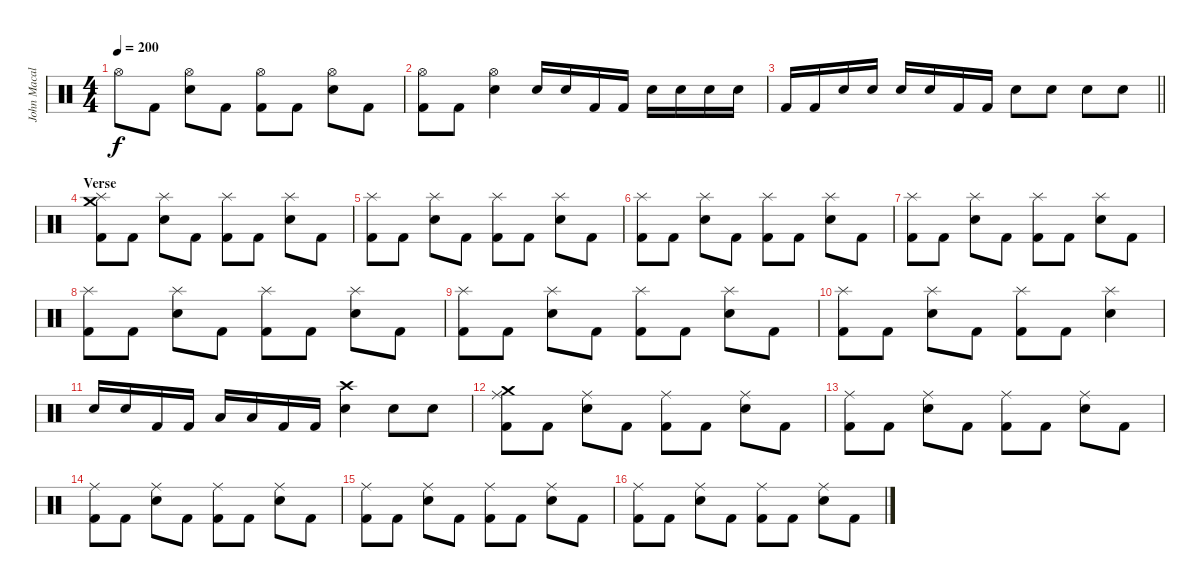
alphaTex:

\track ("John Macaluso" "John Macal") {instrument percussion}
\staff {score}
\articulation defaults
\ts (4 4)
\tempo 200
\clef neutral
\ks c "Hi-Hat (open)".8{dy f} "Kick (hit) 2".8
("Hi-Hat (open)" "Snare (hit) 2").8 "Kick (hit) 2".8 ("Hi-Hat (open)" "Kick (hit) 2").8 "Kick (hit) 2".8 ("Hi-Hat (open)" "Snare (hit) 2").8 "Kick (hit) 2".8 |
("Hi-Hat (open)" "Kick (hit) 2").8 "Kick (hit) 2".8 ("Hi-Hat (open)" "Snare (hit) 2").4 "Snare (hit) 2".16 "Snare (hit) 2".16 "Kick (hit) 2".16 "Kick (hit) 2".16 "Snare (hit) 2".16 "Snare (hit) 2".16 "Snare (hit) 2".16 "Snare (hit) 2".16 |
\barLineRight lightlight "Kick (hit) 2".16 "Kick (hit) 2".16 "Snare (hit) 2".16 "Snare (hit) 2".16 "Snare (hit) 2".16 "Snare (hit) 2".16 "Kick (hit) 2".16 "Kick (hit) 2".16 "Snare (hit) 2".8 "Snare (hit) 2".8 "Snare (hit) 2".8 "Snare (hit) 2".8
|
\section ("" "Verse")
("Crash medium (hit)" "Splash (hit)" "Kick (hit) 2").8 "Kick (hit) 2".8 ("Splash (hit)" "Snare (hit) 2").8 "Kick (hit) 2".8 ("Splash (hit)" "Kick (hit) 2").8 "Kick (hit) 2".8 ("Splash (hit)" "Snare (hit) 2").8 "Kick (hit) 2".8 |
("Splash (hit)" "Kick (hit) 2").8 "Kick (hit) 2".8 ("Splash (hit)" "Snare (hit) 2").8 "Kick (hit) 2".8 ("Splash (hit)" "Kick (hit) 2").8 "Kick (hit) 2".8 ("Splash (hit)" "Snare (hit) 2").8 "Kick (hit) 2".8 |
("Splash (hit)" "Kick (hit) 2").8 "Kick (hit) 2".8 ("Splash (hit)" "Snare (hit) 2").8 "Kick (hit) 2".8 ("Splash (hit)" "Kick (hit) 2").8 "Kick (hit) 2".8 ("Splash (hit)" "Snare (hit) 2").8 "Kick (hit) 2".8 |
("Splash (hit)" "Kick (hit) 2").8 "Kick (hit) 2".8 ("Splash (hit)" "Snare (hit) 2").8 "Kick (hit) 2".8 ("Splash (hit)" "Kick (hit) 2").8 "Kick (hit) 2".8 ("Splash (hit)" "Snare (hit) 2").8 "Kick (hit) 2".8 |
("Splash (hit)" "Kick (hit) 2").8 "Kick (hit) 2".8 ("Splash (hit)" "Snare (hit) 2").8 "Kick (hit) 2".8 ("Splash (hit)" "Kick (hit) 2").8 "Kick (hit) 2".8 ("Splash (hit)" "Snare (hit) 2").8 "Kick (hit) 2".8 |
("Splash (hit)" "Kick (hit) 2").8 "Kick (hit) 2".8 ("Splash (hit)" "Snare (hit) 2").8 "Kick (hit) 2".8 ("Splash (hit)" "Kick (hit) 2").8 "Kick (hit) 2".8 ("Splash (hit)" "Snare (hit) 2").8 "Kick (hit) 2".8 |
("Splash (hit)" "Kick (hit) 2").8 "Kick (hit) 2".8 ("Splash (hit)" "Snare (hit) 2").8 "Kick (hit) 2".8 ("Splash (hit)" "Kick (hit) 2").8 "Kick (hit) 2".8 ("Splash (hit)" "Snare (hit) 2").4 |
"Snare (hit) 2".16 "Snare (hit) 2".16 "Kick (hit) 2".16 "Kick (hit) 2".16 "Low Tom (hit)".16 "Low Tom (hit)".16 "Kick (hit) 2".16 "Kick (hit) 2".16 ("Crash high (hit)" "Snare (hit) 2").4 "Snare (hit) 2".8 "Snare (hit) 2".8 |
("Crash medium (hit)" "Ride (middle)" "Kick (hit) 2").8 "Kick (hit) 2".8 ("Ride (middle)" "Snare (hit) 2").8 "Kick (hit) 2".8 ("Ride (middle)" "Kick (hit) 2").8 "Kick (hit) 2".8 ("Ride (middle)" "Snare (hit) 2").8 "Kick (hit) 2".8 |
("Ride (middle)" "Kick (hit) 2").8 "Kick (hit) 2".8 ("Ride (middle)" "Snare (hit) 2").8 "Kick (hit) 2".8 ("Ride (middle)" "Kick (hit) 2").8 "Kick (hit) 2".8 ("Ride (middle)" "Snare (hit) 2").8 "Kick (hit) 2".8 |
("Ride (middle)" "Kick (hit) 2").8 "Kick (hit) 2".8 ("Ride (middle)" "Snare (hit) 2").8 "Kick (hit) 2".8 ("Ride (middle)" "Kick (hit) 2").8 "Kick (hit) 2".8 ("Ride (middle)" "Snare (hit) 2").8 "Kick (hit) 2".8 |
("Ride (middle)" "Kick (hit) 2").8 "Kick (hit) 2".8 ("Ride (middle)" "Snare (hit) 2").8 "Kick (hit) 2".8 ("Ride (middle)" "Kick (hit) 2").8 "Kick (hit) 2".8 ("Ride (middle)" "Snare (hit) 2").8 "Kick (hit) 2".8 |
("Ride (middle)" "Kick (hit) 2").8 "Kick (hit) 2".8 ("Ride (middle)" "Snare (hit) 2").8 "Kick (hit) 2".8 ("Ride (middle)" "Kick (hit) 2").8 "Kick (hit) 2".8 ("Ride (middle)" "Snare (hit) 2").8 "Kick (hit) 2".8
